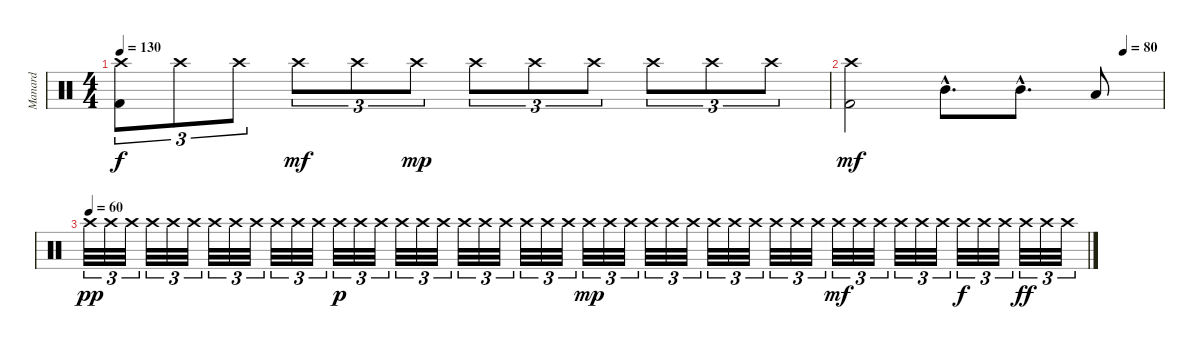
\track ("Manard" "Manard") {instrument percussion}
\staff {score}
\articulation defaults
\ts (4 4)
\tempo 130
\clef neutral
\ks c
("Crash high (hit)" "Kick (hit) 2").8{tu (3 2) dy f} "Crash high (hit)".8{tu (3 2)} "Crash high (hit)".8{tu (3 2)} "Crash high (hit)".8{tu (3 2) dy mf} "Crash high (hit)".8{tu (3 2)} "Crash high (hit)".8{tu (3 2) dy mp} "Crash high (hit)".8{tu (3 2)} "Crash high (hit)".8{tu (3 2)} "Crash high (hit)".8{tu (3 2)} "Crash high (hit)".8{tu (3 2)} "Crash high (hit)".8{tu (3 2)} "Crash high (hit)".8{tu (3 2)} |
\tempo (80 0.875)
("Crash high (hit)" "Kick (hit) 2").2{dy mf} "Mid Tom (hit)"{hac}.8{d} "Mid Tom (hit)"{hac}.8{d} "Low Tom (hit)".8 |
\tempo (60)
"Crash high (hit)".32{tu (3 2) dy pp} "Crash high (hit)".32{tu (3 2)} "Crash high (hit)".32{tu (3 2)} "Crash high (hit)".32{tu (3 2)} "Crash high (hit)".32{tu (3 2)} "Crash high (hit)".32{tu (3 2)} "Crash high (hit)".32{tu (3 2)} "Crash high (hit)".32{tu (3 2)} "Crash high (hit)".32{tu (3 2)} "Crash high (hit)".32{tu (3 2)} "Crash high (hit)".32{tu (3 2)} "Crash high (hit)".32{tu (3 2)} "Crash high (hit)".32{tu (3 2) dy p} "Crash high (hit)".32{tu (3 2)} "Crash high (hit)".32{tu (3 2)} "Crash high (hit)".32{tu (3 2)} "Crash high (hit)".32{tu (3 2)} "Crash high (hit)".32{tu (3 2)} "Crash high (hit)".32{tu (3 2)} "Crash high (hit)".32{tu (3 2)} "Crash high (hit)".32{tu (3 2)} "Crash high (hit)".32{tu (3 2)} "Crash high (hit)".32{tu (3 2)} "Crash high (hit)".32{tu (3 2)} "Crash high (hit)".32{tu (3 2) dy mp} "Crash high (hit)".32{tu (3 2)} "Crash high (hit)".32{tu (3 2)} "Crash high (hit)".32{tu (3 2)} "Crash high (hit)".32{tu (3 2)} "Crash high (hit)".32{tu (3 2)} "Crash high (hit)".32{tu (3 2)} "Crash high (hit)".32{tu (3 2)} "Crash high (hit)".32{tu (3 2)} "Crash high (hit)".32{tu (3 2)} "Crash high (hit)".32{tu (3 2)} "Crash high (hit)".32{tu (3 2)} "Crash high (hit)".32{tu (3 2) dy mf} "Crash high (hit)".32{tu (3 2)} "Crash high (hit)".32{tu (3 2)} "Crash high (hit)".32{tu (3 2)} "Crash high (hit)".32{tu (3 2)} "Crash high (hit)".32{tu (3 2)} "Crash high (hit)".32{tu (3 2) dy f} "Crash high (hit)".32{tu (3 2)} "Crash high (hit)".32{tu (3 2)} "Crash high (hit)".32{tu (3 2) dy ff} "Crash high (hit)".32{tu (3 2)} "Crash high (hit)".32{tu (3 2)}
